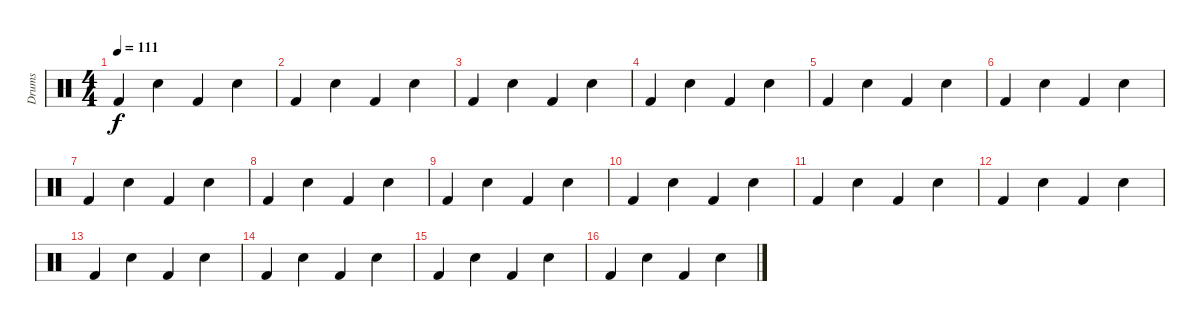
\track ("Drums" "Drums") {instrument percussion}
\staff {score}
\articulation defaults
\ts (4 4)
\tempo 111
\clef neutral
\ks c "Kick (hit) 2".4{dy f} "Electric Snare (hit)".4 "Kick (hit) 2".4 "Electric Snare (hit)".4
|
"Kick (hit) 2".4 "Electric Snare (hit)".4 "Kick (hit) 2".4 "Electric Snare (hit)".4 |
"Kick (hit) 2".4 "Electric Snare (hit)".4 "Kick (hit) 2".4 "Electric Snare (hit)".4 |
"Kick (hit) 2".4 "Electric Snare (hit)".4 "Kick (hit) 2".4 "Electric Snare (hit)".4 |
"Kick (hit) 2".4 "Electric Snare (hit)".4 "Kick (hit) 2".4 "Electric Snare (hit)".4 |
"Kick (hit) 2".4 "Electric Snare (hit)".4 "Kick (hit) 2".4 "Electric Snare (hit)".4 |
"Kick (hit) 2".4 "Electric Snare (hit)".4 "Kick (hit) 2".4 "Electric Snare (hit)".4 |
"Kick (hit) 2".4 "Electric Snare (hit)".4 "Kick (hit) 2".4 "Electric Snare (hit)".4 |
"Kick (hit) 2".4 "Electric Snare (hit)".4 "Kick (hit) 2".4 "Electric Snare (hit)".4 |
"Kick (hit) 2".4 "Electric Snare (hit)".4 "Kick (hit) 2".4 "Electric Snare (hit)".4 |
"Kick (hit) 2".4 "Electric Snare (hit)".4 "Kick (hit) 2".4 "Electric Snare (hit)".4 |
"Kick (hit) 2".4 "Electric Snare (hit)".4 "Kick (hit) 2".4 "Electric Snare (hit)".4 |
"Kick (hit) 2".4 "Electric Snare (hit)".4 "Kick (hit) 2".4 "Electric Snare (hit)".4 |
"Kick (hit) 2".4 "Electric Snare (hit)".4 "Kick (hit) 2".4 "Electric Snare (hit)".4 |
"Kick (hit) 2".4 "Electric Snare (hit)".4 "Kick (hit) 2".4 "Electric Snare (hit)".4 |
"Kick (hit) 2".4 "Electric Snare (hit)".4 "Kick (hit) 2".4 "Electric Snare (hit)".4
